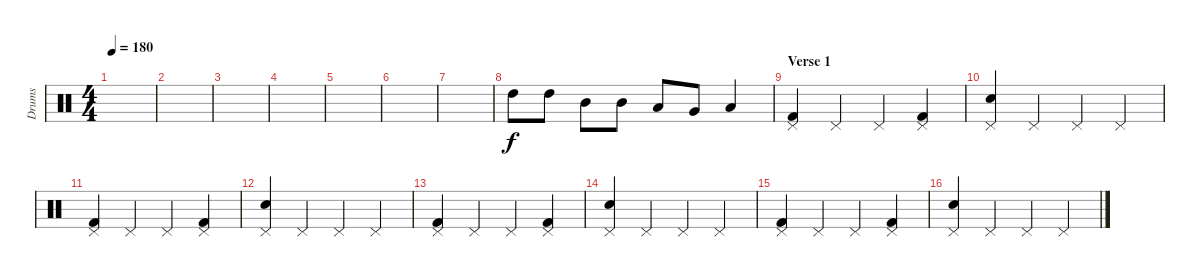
\track ("Drums" "Drums") {instrument percussion}
\staff {score}
\articulation defaults
\ts (4 4)
\tempo 180
\clef neutral
\ks c
|
|
|
|
|
|
|
"High Tom (hit)".8 "High Tom (hit)".8 "Mid Tom (hit)".8 "Mid Tom (hit)".8 "Low Tom (hit)".8 "Very Low Tom (hit)".8 "Low Floor Tom (hit)".4 |
\section ("" "Verse 1")
("Kick (hit) 2" "Pedal Hi-Hat (hit)").4 "Pedal Hi-Hat (hit)".4 "Pedal Hi-Hat (hit)".4 ("Kick (hit) 2" "Pedal Hi-Hat (hit)").4 |
("Electric Snare (hit)" "Pedal Hi-Hat (hit)").4 "Pedal Hi-Hat (hit)".4 "Pedal Hi-Hat (hit)".4 "Pedal Hi-Hat (hit)".4 |
("Kick (hit) 2" "Pedal Hi-Hat (hit)").4 "Pedal Hi-Hat (hit)".4 "Pedal Hi-Hat (hit)".4 ("Kick (hit) 2" "Pedal Hi-Hat (hit)").4 |
("Electric Snare (hit)" "Pedal Hi-Hat (hit)").4 "Pedal Hi-Hat (hit)".4 "Pedal Hi-Hat (hit)".4 "Pedal Hi-Hat (hit)".4 |
("Kick (hit) 2" "Pedal Hi-Hat (hit)").4 "Pedal Hi-Hat (hit)".4 "Pedal Hi-Hat (hit)".4 ("Kick (hit) 2" "Pedal Hi-Hat (hit)").4 |
("Electric Snare (hit)" "Pedal Hi-Hat (hit)").4 "Pedal Hi-Hat (hit)".4 "Pedal Hi-Hat (hit)".4 "Pedal Hi-Hat (hit)".4 |
("Kick (hit) 2" "Pedal Hi-Hat (hit)").4 "Pedal Hi-Hat (hit)".4 "Pedal Hi-Hat (hit)".4 ("Kick (hit) 2" "Pedal Hi-Hat (hit)").4 |
("Electric Snare (hit)" "Pedal Hi-Hat (hit)").4 "Pedal Hi-Hat (hit)".4 "Pedal Hi-Hat (hit)".4 "Pedal Hi-Hat (hit)".4
